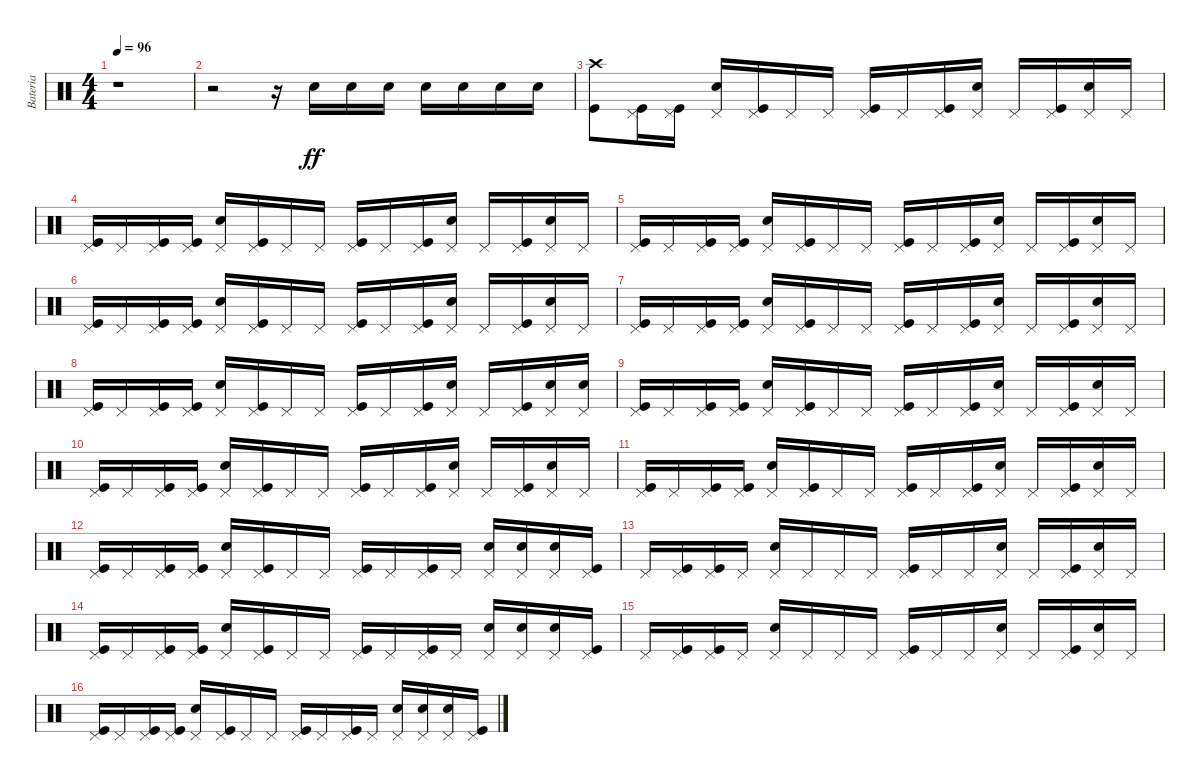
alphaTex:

\track ("Bateria" "Bateria") {instrument percussion}
\staff {score}
\articulation defaults
\ts (4 4)
\tempo 96
\clef neutral
\ks c
r.1{dy ff} |
r.2 r.16 "Snare (hit) 2".16 "Snare (hit) 2".16 "Snare (hit) 2".16 "Snare (hit) 2".16 "Snare (hit) 2".16 "Snare (hit) 2".16 "Snare (hit) 2".16 |
("Kick (hit)" "Crash high (hit)").8 ("Kick (hit)" "Pedal Hi-Hat (hit)").16 ("Kick (hit)" "Pedal Hi-Hat (hit)").16 ("Snare (hit) 2" "Pedal Hi-Hat (hit)").16 ("Kick (hit)" "Pedal Hi-Hat (hit)").16 "Pedal Hi-Hat (hit)".16 "Pedal Hi-Hat (hit)".16 ("Kick (hit)" "Pedal Hi-Hat (hit)").16 "Pedal Hi-Hat (hit)".16 ("Kick (hit)" "Pedal Hi-Hat (hit)").16 ("Snare (hit) 2" "Pedal Hi-Hat (hit)").16 "Pedal Hi-Hat (hit)".16 ("Kick (hit)" "Pedal Hi-Hat (hit)").16 ("Snare (hit) 2" "Pedal Hi-Hat (hit)").16 "Pedal Hi-Hat (hit)".16 |
("Kick (hit)" "Pedal Hi-Hat (hit)").16 "Pedal Hi-Hat (hit)".16 ("Kick (hit)" "Pedal Hi-Hat (hit)").16 ("Kick (hit)" "Pedal Hi-Hat (hit)").16 ("Snare (hit) 2" "Pedal Hi-Hat (hit)").16 ("Kick (hit)" "Pedal Hi-Hat (hit)").16 "Pedal Hi-Hat (hit)".16 "Pedal Hi-Hat (hit)".16 ("Kick (hit)" "Pedal Hi-Hat (hit)").16 "Pedal Hi-Hat (hit)".16 ("Kick (hit)" "Pedal Hi-Hat (hit)").16 ("Snare (hit) 2" "Pedal Hi-Hat (hit)").16 "Pedal Hi-Hat (hit)".16 ("Kick (hit)" "Pedal Hi-Hat (hit)").16 ("Snare (hit) 2" "Pedal Hi-Hat (hit)").16 "Pedal Hi-Hat (hit)".16 |
("Kick (hit)" "Pedal Hi-Hat (hit)").16 "Pedal Hi-Hat (hit)".16 ("Kick (hit)" "Pedal Hi-Hat (hit)").16 ("Kick (hit)" "Pedal Hi-Hat (hit)").16 ("Snare (hit) 2" "Pedal Hi-Hat (hit)").16 ("Kick (hit)" "Pedal Hi-Hat (hit)").16 "Pedal Hi-Hat (hit)".16 "Pedal Hi-Hat (hit)".16 ("Kick (hit)" "Pedal Hi-Hat (hit)").16 "Pedal Hi-Hat (hit)".16 ("Kick (hit)" "Pedal Hi-Hat (hit)").16 ("Snare (hit) 2" "Pedal Hi-Hat (hit)").16 "Pedal Hi-Hat (hit)".16 ("Kick (hit)" "Pedal Hi-Hat (hit)").16 ("Snare (hit) 2" "Pedal Hi-Hat (hit)").16 "Pedal Hi-Hat (hit)".16 |
("Kick (hit)" "Pedal Hi-Hat (hit)").16 "Pedal Hi-Hat (hit)".16 ("Kick (hit)" "Pedal Hi-Hat (hit)").16 ("Kick (hit)" "Pedal Hi-Hat (hit)").16 ("Snare (hit) 2" "Pedal Hi-Hat (hit)").16 ("Kick (hit)" "Pedal Hi-Hat (hit)").16 "Pedal Hi-Hat (hit)".16 "Pedal Hi-Hat (hit)".16 ("Kick (hit)" "Pedal Hi-Hat (hit)").16 "Pedal Hi-Hat (hit)".16 ("Kick (hit)" "Pedal Hi-Hat (hit)").16 ("Snare (hit) 2" "Pedal Hi-Hat (hit)").16 "Pedal Hi-Hat (hit)".16 ("Kick (hit)" "Pedal Hi-Hat (hit)").16 ("Snare (hit) 2" "Pedal Hi-Hat (hit)").16 "Pedal Hi-Hat (hit)".16 |
("Kick (hit)" "Pedal Hi-Hat (hit)").16 "Pedal Hi-Hat (hit)".16 ("Kick (hit)" "Pedal Hi-Hat (hit)").16 ("Kick (hit)" "Pedal Hi-Hat (hit)").16 ("Snare (hit) 2" "Pedal Hi-Hat (hit)").16 ("Kick (hit)" "Pedal Hi-Hat (hit)").16 "Pedal Hi-Hat (hit)".16 "Pedal Hi-Hat (hit)".16 ("Kick (hit)" "Pedal Hi-Hat (hit)").16 "Pedal Hi-Hat (hit)".16 ("Kick (hit)" "Pedal Hi-Hat (hit)").16 ("Snare (hit) 2" "Pedal Hi-Hat (hit)").16 "Pedal Hi-Hat (hit)".16 ("Kick (hit)" "Pedal Hi-Hat (hit)").16 ("Snare (hit) 2" "Pedal Hi-Hat (hit)").16 "Pedal Hi-Hat (hit)".16 |
("Kick (hit)" "Pedal Hi-Hat (hit)").16 "Pedal Hi-Hat (hit)".16 ("Kick (hit)" "Pedal Hi-Hat (hit)").16 ("Kick (hit)" "Pedal Hi-Hat (hit)").16 ("Snare (hit) 2" "Pedal Hi-Hat (hit)").16 ("Kick (hit)" "Pedal Hi-Hat (hit)").16 "Pedal Hi-Hat (hit)".16 "Pedal Hi-Hat (hit)".16 ("Kick (hit)" "Pedal Hi-Hat (hit)").16 "Pedal Hi-Hat (hit)".16 ("Kick (hit)" "Pedal Hi-Hat (hit)").16 ("Snare (hit) 2" "Pedal Hi-Hat (hit)").16 "Pedal Hi-Hat (hit)".16 ("Kick (hit)" "Pedal Hi-Hat (hit)").16 ("Snare (hit) 2" "Pedal Hi-Hat (hit)").16 ("Snare (hit) 2" "Pedal Hi-Hat (hit)").16 |
("Kick (hit)" "Pedal Hi-Hat (hit)").16 "Pedal Hi-Hat (hit)".16 ("Kick (hit)" "Pedal Hi-Hat (hit)").16 ("Kick (hit)" "Pedal Hi-Hat (hit)").16 ("Snare (hit) 2" "Pedal Hi-Hat (hit)").16 ("Kick (hit)" "Pedal Hi-Hat (hit)").16 "Pedal Hi-Hat (hit)".16 "Pedal Hi-Hat (hit)".16 ("Kick (hit)" "Pedal Hi-Hat (hit)").16 "Pedal Hi-Hat (hit)".16 ("Kick (hit)" "Pedal Hi-Hat (hit)").16 ("Snare (hit) 2" "Pedal Hi-Hat (hit)").16 "Pedal Hi-Hat (hit)".16 ("Kick (hit)" "Pedal Hi-Hat (hit)").16 ("Snare (hit) 2" "Pedal Hi-Hat (hit)").16 "Pedal Hi-Hat (hit)".16 |
("Kick (hit)" "Pedal Hi-Hat (hit)").16 "Pedal Hi-Hat (hit)".16 ("Kick (hit)" "Pedal Hi-Hat (hit)").16 ("Kick (hit)" "Pedal Hi-Hat (hit)").16 ("Snare (hit) 2" "Pedal Hi-Hat (hit)").16 ("Kick (hit)" "Pedal Hi-Hat (hit)").16 "Pedal Hi-Hat (hit)".16 "Pedal Hi-Hat (hit)".16 ("Kick (hit)" "Pedal Hi-Hat (hit)").16 "Pedal Hi-Hat (hit)".16 ("Kick (hit)" "Pedal Hi-Hat (hit)").16 ("Snare (hit) 2" "Pedal Hi-Hat (hit)").16 "Pedal Hi-Hat (hit)".16 ("Kick (hit)" "Pedal Hi-Hat (hit)").16 ("Snare (hit) 2" "Pedal Hi-Hat (hit)").16 "Pedal Hi-Hat (hit)".16 |
("Kick (hit)" "Pedal Hi-Hat (hit)").16 "Pedal Hi-Hat (hit)".16 ("Kick (hit)" "Pedal Hi-Hat (hit)").16 ("Kick (hit)" "Pedal Hi-Hat (hit)").16 ("Snare (hit) 2" "Pedal Hi-Hat (hit)").16 ("Kick (hit)" "Pedal Hi-Hat (hit)").16 "Pedal Hi-Hat (hit)".16 "Pedal Hi-Hat (hit)".16 ("Kick (hit)" "Pedal Hi-Hat (hit)").16 "Pedal Hi-Hat (hit)".16 ("Kick (hit)" "Pedal Hi-Hat (hit)").16 ("Snare (hit) 2" "Pedal Hi-Hat (hit)").16 "Pedal Hi-Hat (hit)".16 ("Kick (hit)" "Pedal Hi-Hat (hit)").16 ("Snare (hit) 2" "Pedal Hi-Hat (hit)").16 "Pedal Hi-Hat (hit)".16 |
("Kick (hit)" "Pedal Hi-Hat (hit)").16 "Pedal Hi-Hat (hit)".16 ("Kick (hit)" "Pedal Hi-Hat (hit)").16 ("Kick (hit)" "Pedal Hi-Hat (hit)").16 ("Snare (hit) 2" "Pedal Hi-Hat (hit)").16 ("Kick (hit)" "Pedal Hi-Hat (hit)").16 "Pedal Hi-Hat (hit)".16 "Pedal Hi-Hat (hit)".16 ("Kick (hit)" "Pedal Hi-Hat (hit)").16 "Pedal Hi-Hat (hit)".16 ("Kick (hit)" "Pedal Hi-Hat (hit)").16 "Pedal Hi-Hat (hit)".16 ("Snare (hit) 2" "Pedal Hi-Hat (hit)").16 ("Snare (hit) 2" "Pedal Hi-Hat (hit)").16 ("Snare (hit) 2" "Pedal Hi-Hat (hit)").16 ("Kick (hit)" "Pedal Hi-Hat (hit)").16 |
"Pedal Hi-Hat (hit)".16 ("Kick (hit)" "Pedal Hi-Hat (hit)").16 ("Kick (hit)" "Pedal Hi-Hat (hit)").16 "Pedal Hi-Hat (hit)".16 ("Snare (hit) 2" "Pedal Hi-Hat (hit)").16 "Pedal Hi-Hat (hit)".16 "Pedal Hi-Hat (hit)".16 "Pedal Hi-Hat (hit)".16 ("Kick (hit)" "Pedal Hi-Hat (hit)").16 "Pedal Hi-Hat (hit)".16 "Pedal Hi-Hat (hit)".16 ("Snare (hit) 2" "Pedal Hi-Hat (hit)").16 "Pedal Hi-Hat (hit)".16 ("Kick (hit)" "Pedal Hi-Hat (hit)").16 ("Snare (hit) 2" "Pedal Hi-Hat (hit)").16 "Pedal Hi-Hat (hit)".16 |
("Kick (hit)" "Pedal Hi-Hat (hit)").16 "Pedal Hi-Hat (hit)".16 ("Kick (hit)" "Pedal Hi-Hat (hit)").16 ("Kick (hit)" "Pedal Hi-Hat (hit)").16 ("Snare (hit) 2" "Pedal Hi-Hat (hit)").16 ("Kick (hit)" "Pedal Hi-Hat (hit)").16 "Pedal Hi-Hat (hit)".16 "Pedal Hi-Hat (hit)".16 ("Kick (hit)" "Pedal Hi-Hat (hit)").16 "Pedal Hi-Hat (hit)".16 ("Kick (hit)" "Pedal Hi-Hat (hit)").16 "Pedal Hi-Hat (hit)".16 ("Snare (hit) 2" "Pedal Hi-Hat (hit)").16 ("Snare (hit) 2" "Pedal Hi-Hat (hit)").16 ("Snare (hit) 2" "Pedal Hi-Hat (hit)").16 ("Kick (hit)" "Pedal Hi-Hat (hit)").16 |
"Pedal Hi-Hat (hit)".16 ("Kick (hit)" "Pedal Hi-Hat (hit)").16 ("Kick (hit)" "Pedal Hi-Hat (hit)").16 "Pedal Hi-Hat (hit)".16 ("Snare (hit) 2" "Pedal Hi-Hat (hit)").16 "Pedal Hi-Hat (hit)".16 "Pedal Hi-Hat (hit)".16 "Pedal Hi-Hat (hit)".16 ("Kick (hit)" "Pedal Hi-Hat (hit)").16 "Pedal Hi-Hat (hit)".16 "Pedal Hi-Hat (hit)".16 ("Snare (hit) 2" "Pedal Hi-Hat (hit)").16 "Pedal Hi-Hat (hit)".16 ("Kick (hit)" "Pedal Hi-Hat (hit)").16 ("Snare (hit) 2" "Pedal Hi-Hat (hit)").16 "Pedal Hi-Hat (hit)".16 |
("Kick (hit)" "Pedal Hi-Hat (hit)").16 "Pedal Hi-Hat (hit)".16 ("Kick (hit)" "Pedal Hi-Hat (hit)").16 ("Kick (hit)" "Pedal Hi-Hat (hit)").16 ("Snare (hit) 2" "Pedal Hi-Hat (hit)").16 ("Kick (hit)" "Pedal Hi-Hat (hit)").16 "Pedal Hi-Hat (hit)".16 "Pedal Hi-Hat (hit)".16 ("Kick (hit)" "Pedal Hi-Hat (hit)").16 "Pedal Hi-Hat (hit)".16 ("Kick (hit)" "Pedal Hi-Hat (hit)").16 "Pedal Hi-Hat (hit)".16 ("Snare (hit) 2" "Pedal Hi-Hat (hit)").16 ("Snare (hit) 2" "Pedal Hi-Hat (hit)").16 ("Snare (hit) 2" "Pedal Hi-Hat (hit)").16 ("Kick (hit)" "Pedal Hi-Hat (hit)").16
